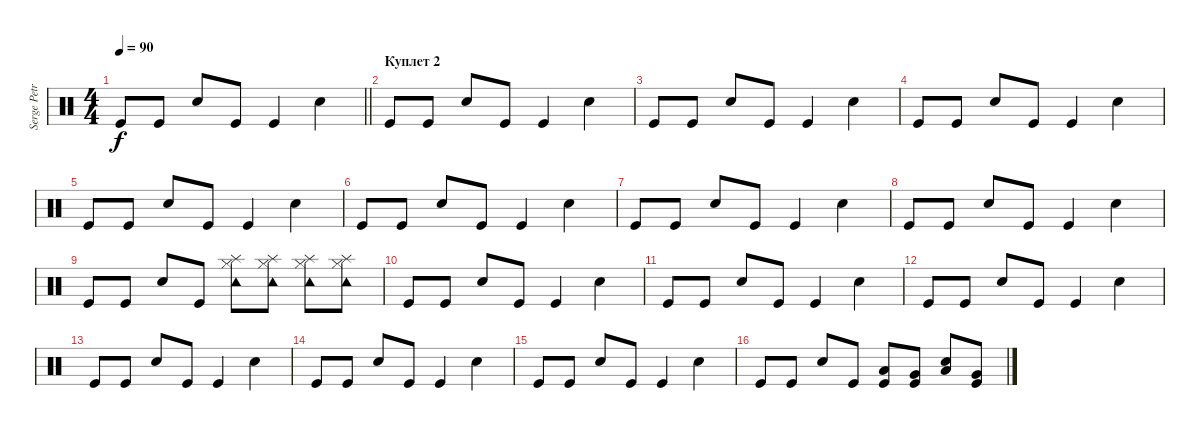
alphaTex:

\track ("Serge Petrone" "Serge Petr") {instrument percussion}
\staff {score}
\articulation defaults
\ts (4 4)
\tempo 90
\clef neutral
\barLineRight lightlight
\ks c "Kick (hit)".8{dy f} "Kick (hit)".8 "Snare (hit) 2".8 "Kick (hit)".8 "Kick (hit)".4 "Snare (hit) 2".4
|
\section ("" "Куплет 2")
"Kick (hit)".8 "Kick (hit)".8 "Snare (hit) 2".8 "Kick (hit)".8 "Kick (hit)".4 "Snare (hit) 2".4 |
"Kick (hit)".8 "Kick (hit)".8 "Snare (hit) 2".8 "Kick (hit)".8 "Kick (hit)".4 "Snare (hit) 2".4 |
"Kick (hit)".8 "Kick (hit)".8 "Snare (hit) 2".8 "Kick (hit)".8 "Kick (hit)".4 "Snare (hit) 2".4 |
"Kick (hit)".8 "Kick (hit)".8 "Snare (hit) 2".8 "Kick (hit)".8 "Kick (hit)".4 "Snare (hit) 2".4 |
"Kick (hit)".8 "Kick (hit)".8 "Snare (hit) 2".8 "Kick (hit)".8 "Kick (hit)".4 "Snare (hit) 2".4 |
"Kick (hit)".8 "Kick (hit)".8 "Snare (hit) 2".8 "Kick (hit)".8 "Kick (hit)".4 "Snare (hit) 2".4 |
"Kick (hit)".8 "Kick (hit)".8 "Snare (hit) 2".8 "Kick (hit)".8 "Kick (hit)".4 "Snare (hit) 2".4 |
"Kick (hit)".8 "Kick (hit)".8 "Snare (hit) 2".8 "Kick (hit)".8 ("Splash (hit)" "Tambourine (hit)" "Hi-Hat (closed)").8 ("Splash (hit)" "Hi-Hat (closed)" "Tambourine (hit)").8 ("Splash (hit)" "Hi-Hat (closed)" "Tambourine (hit)").8 ("Splash (hit)" "Hi-Hat (closed)" "Tambourine (hit)").8 |
"Kick (hit)".8 "Kick (hit)".8 "Snare (hit) 2".8 "Kick (hit)".8 "Kick (hit)".4 "Snare (hit) 2".4 |
"Kick (hit)".8 "Kick (hit)".8 "Snare (hit) 2".8 "Kick (hit)".8 "Kick (hit)".4 "Snare (hit) 2".4 |
"Kick (hit)".8 "Kick (hit)".8 "Snare (hit) 2".8 "Kick (hit)".8 "Kick (hit)".4 "Snare (hit) 2".4 |
"Kick (hit)".8 "Kick (hit)".8 "Snare (hit) 2".8 "Kick (hit)".8 "Kick (hit)".4 "Snare (hit) 2".4 |
"Kick (hit)".8 "Kick (hit)".8 "Snare (hit) 2".8 "Kick (hit)".8 "Kick (hit)".4 "Snare (hit) 2".4 |
"Kick (hit)".8 "Kick (hit)".8 "Snare (hit) 2".8 "Kick (hit)".8 "Kick (hit)".4 "Snare (hit) 2".4 |
"Kick (hit)".8 "Kick (hit)".8 "Snare (hit) 2".8 "Kick (hit)".8 ("Kick (hit)" "Low Floor Tom (hit)").8 ("Kick (hit)" "Very Low Tom (hit)").8 ("Snare (hit) 2" "Low Tom (hit)").8 ("Kick (hit)" "Very Low Tom (hit)").8
